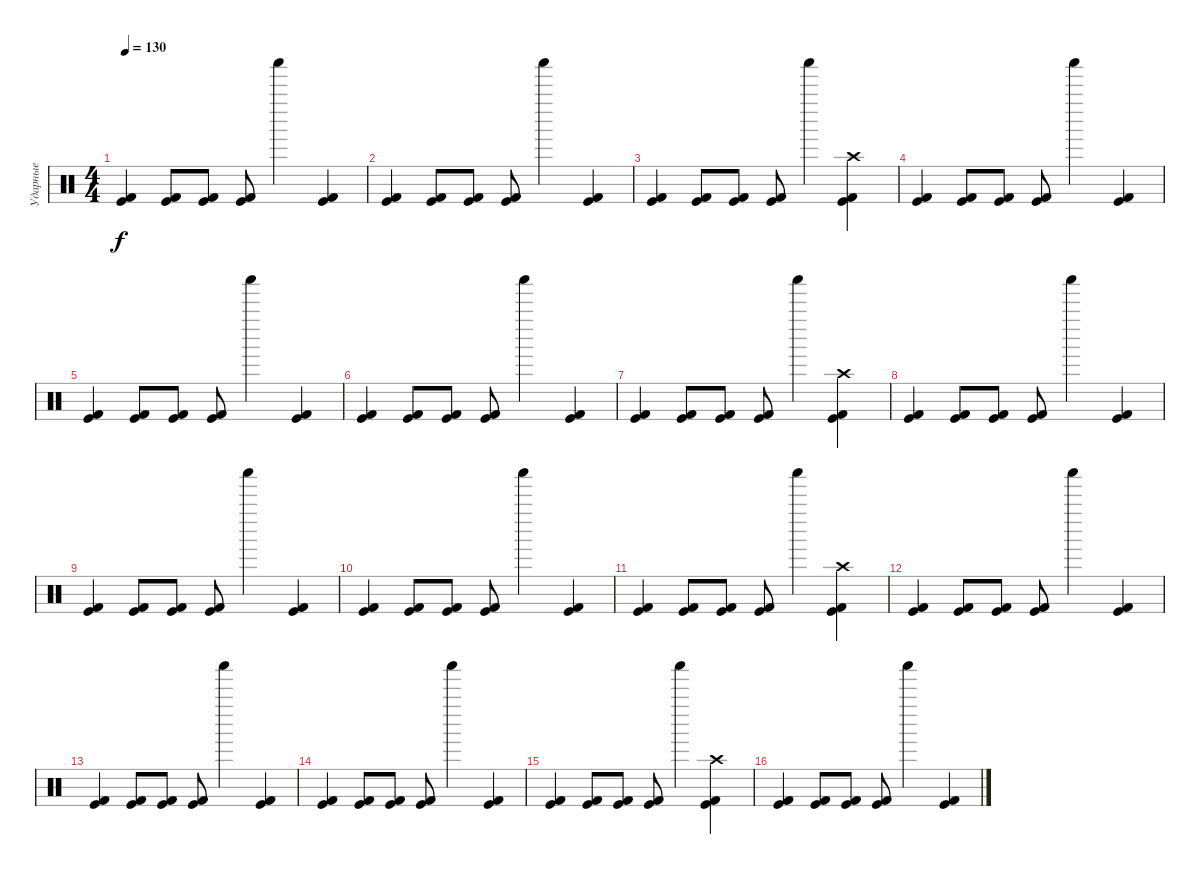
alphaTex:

\track ("Ударные" "Ударные") {instrument percussion}
\staff {score}
\articulation defaults
\ts (4 4)
\tempo 130
\clef neutral
\ks c
("Kick (hit)" "Kick (hit) 2").4{dy f} ("Kick (hit)" "Kick (hit) 2").8 ("Kick (hit)" "Kick (hit) 2").8 ("Kick (hit)" "Kick (hit) 2").8 "Shaker (hit)".4 ("Kick (hit)" "Kick (hit) 2").4 |
("Kick (hit)" "Kick (hit) 2").4 ("Kick (hit)" "Kick (hit) 2").8 ("Kick (hit)" "Kick (hit) 2").8 ("Kick (hit)" "Kick (hit) 2").8 "Shaker (hit)".4 ("Kick (hit)" "Kick (hit) 2").4 |
("Kick (hit)" "Kick (hit) 2").4 ("Kick (hit)" "Kick (hit) 2").8 ("Kick (hit)" "Kick (hit) 2").8 ("Kick (hit)" "Kick (hit) 2").8 "Shaker (hit)".4 ("Kick (hit)" "Kick (hit) 2" "Crash high (hit)").4 |
("Kick (hit)" "Kick (hit) 2").4 ("Kick (hit)" "Kick (hit) 2").8 ("Kick (hit)" "Kick (hit) 2").8 ("Kick (hit)" "Kick (hit) 2").8 "Shaker (hit)".4 ("Kick (hit)" "Kick (hit) 2").4 |
("Kick (hit)" "Kick (hit) 2").4 ("Kick (hit)" "Kick (hit) 2").8 ("Kick (hit)" "Kick (hit) 2").8 ("Kick (hit)" "Kick (hit) 2").8 "Shaker (hit)".4 ("Kick (hit)" "Kick (hit) 2").4 |
("Kick (hit)" "Kick (hit) 2").4 ("Kick (hit)" "Kick (hit) 2").8 ("Kick (hit)" "Kick (hit) 2").8 ("Kick (hit)" "Kick (hit) 2").8 "Shaker (hit)".4 ("Kick (hit)" "Kick (hit) 2").4 |
("Kick (hit)" "Kick (hit) 2").4 ("Kick (hit)" "Kick (hit) 2").8 ("Kick (hit)" "Kick (hit) 2").8 ("Kick (hit)" "Kick (hit) 2").8 "Shaker (hit)".4 ("Kick (hit)" "Kick (hit) 2" "Crash high (hit)").4 |
("Kick (hit)" "Kick (hit) 2").4 ("Kick (hit)" "Kick (hit) 2").8 ("Kick (hit)" "Kick (hit) 2").8 ("Kick (hit)" "Kick (hit) 2").8 "Shaker (hit)".4 ("Kick (hit)" "Kick (hit) 2").4 |
("Kick (hit)" "Kick (hit) 2").4 ("Kick (hit)" "Kick (hit) 2").8 ("Kick (hit)" "Kick (hit) 2").8 ("Kick (hit)" "Kick (hit) 2").8 "Shaker (hit)".4 ("Kick (hit)" "Kick (hit) 2").4 |
("Kick (hit)" "Kick (hit) 2").4 ("Kick (hit)" "Kick (hit) 2").8 ("Kick (hit)" "Kick (hit) 2").8 ("Kick (hit)" "Kick (hit) 2").8 "Shaker (hit)".4 ("Kick (hit)" "Kick (hit) 2").4 |
("Kick (hit)" "Kick (hit) 2").4 ("Kick (hit)" "Kick (hit) 2").8 ("Kick (hit)" "Kick (hit) 2").8 ("Kick (hit)" "Kick (hit) 2").8 "Shaker (hit)".4 ("Kick (hit)" "Kick (hit) 2" "Crash high (hit)").4 |
("Kick (hit)" "Kick (hit) 2").4 ("Kick (hit)" "Kick (hit) 2").8 ("Kick (hit)" "Kick (hit) 2").8 ("Kick (hit)" "Kick (hit) 2").8 "Shaker (hit)".4 ("Kick (hit)" "Kick (hit) 2").4 |
("Kick (hit)" "Kick (hit) 2").4 ("Kick (hit)" "Kick (hit) 2").8 ("Kick (hit)" "Kick (hit) 2").8 ("Kick (hit)" "Kick (hit) 2").8 "Shaker (hit)".4 ("Kick (hit)" "Kick (hit) 2").4 |
("Kick (hit)" "Kick (hit) 2").4 ("Kick (hit)" "Kick (hit) 2").8 ("Kick (hit)" "Kick (hit) 2").8 ("Kick (hit)" "Kick (hit) 2").8 "Shaker (hit)".4 ("Kick (hit)" "Kick (hit) 2").4 |
("Kick (hit)" "Kick (hit) 2").4 ("Kick (hit)" "Kick (hit) 2").8 ("Kick (hit)" "Kick (hit) 2").8 ("Kick (hit)" "Kick (hit) 2").8 "Shaker (hit)".4 ("Kick (hit)" "Kick (hit) 2" "Crash high (hit)").4 |
("Kick (hit)" "Kick (hit) 2").4 ("Kick (hit)" "Kick (hit) 2").8 ("Kick (hit)" "Kick (hit) 2").8 ("Kick (hit)" "Kick (hit) 2").8 "Shaker (hit)".4 ("Kick (hit)" "Kick (hit) 2").4
